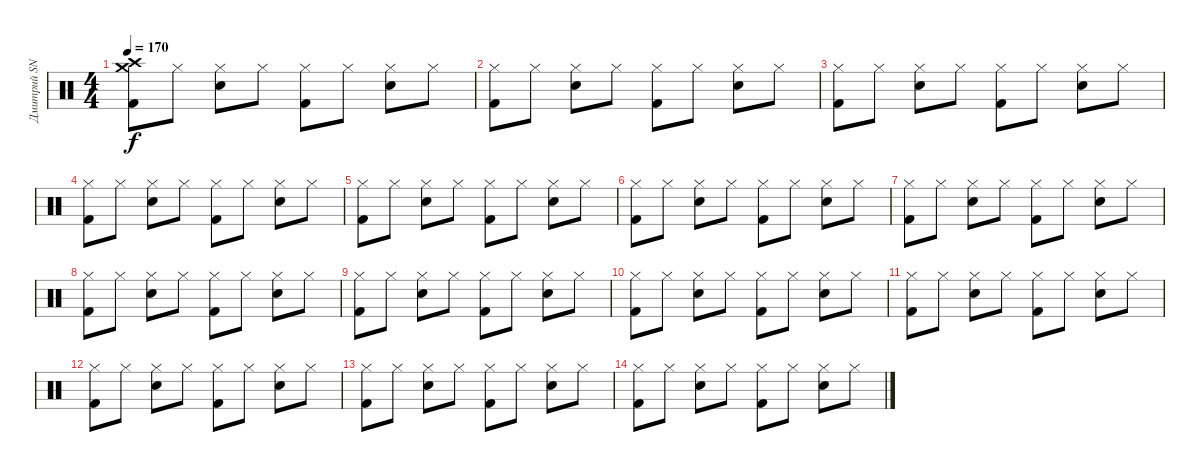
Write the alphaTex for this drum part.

\track ("Дмитрий SNAKE Хакимов" "Дмитрий SN") {instrument percussion}
\staff {score}
\articulation defaults
\ts (4 4)
\tempo 170
\clef neutral
\ks c
("Crash high (hit)" "Crash medium (hit)" "Kick (hit) 2").8{dy f} "Hi-Hat (closed)".8 ("Hi-Hat (closed)" "Snare (hit) 2").8 "Hi-Hat (closed)".8 ("Hi-Hat (closed)" "Kick (hit) 2").8 "Hi-Hat (closed)".8 ("Hi-Hat (closed)" "Snare (hit) 2").8 "Hi-Hat (closed)".8 |
("Hi-Hat (closed)" "Kick (hit) 2").8 "Hi-Hat (closed)".8 ("Hi-Hat (closed)" "Snare (hit) 2").8 "Hi-Hat (closed)".8 ("Hi-Hat (closed)" "Kick (hit) 2").8 "Hi-Hat (closed)".8 ("Hi-Hat (closed)" "Snare (hit) 2").8 "Hi-Hat (closed)".8 |
("Hi-Hat (closed)" "Kick (hit) 2").8 "Hi-Hat (closed)".8 ("Hi-Hat (closed)" "Snare (hit) 2").8 "Hi-Hat (closed)".8 ("Hi-Hat (closed)" "Kick (hit) 2").8 "Hi-Hat (closed)".8 ("Hi-Hat (closed)" "Snare (hit) 2").8 "Hi-Hat (closed)".8 |
("Hi-Hat (closed)" "Kick (hit) 2").8 "Hi-Hat (closed)".8 ("Hi-Hat (closed)" "Snare (hit) 2").8 "Hi-Hat (closed)".8 ("Hi-Hat (closed)" "Kick (hit) 2").8 "Hi-Hat (closed)".8 ("Hi-Hat (closed)" "Snare (hit) 2").8 "Hi-Hat (closed)".8 |
("Hi-Hat (closed)" "Kick (hit) 2").8 "Hi-Hat (closed)".8 ("Hi-Hat (closed)" "Snare (hit) 2").8 "Hi-Hat (closed)".8 ("Hi-Hat (closed)" "Kick (hit) 2").8 "Hi-Hat (closed)".8 ("Hi-Hat (closed)" "Snare (hit) 2").8 "Hi-Hat (closed)".8 |
("Hi-Hat (closed)" "Kick (hit) 2").8 "Hi-Hat (closed)".8 ("Hi-Hat (closed)" "Snare (hit) 2").8 "Hi-Hat (closed)".8 ("Hi-Hat (closed)" "Kick (hit) 2").8 "Hi-Hat (closed)".8 ("Hi-Hat (closed)" "Snare (hit) 2").8 "Hi-Hat (closed)".8 |
("Hi-Hat (closed)" "Kick (hit) 2").8 "Hi-Hat (closed)".8 ("Hi-Hat (closed)" "Snare (hit) 2").8 "Hi-Hat (closed)".8 ("Hi-Hat (closed)" "Kick (hit) 2").8 "Hi-Hat (closed)".8 ("Hi-Hat (closed)" "Snare (hit) 2").8 "Hi-Hat (closed)".8 |
("Hi-Hat (closed)" "Kick (hit) 2").8 "Hi-Hat (closed)".8 ("Hi-Hat (closed)" "Snare (hit) 2").8 "Hi-Hat (closed)".8 ("Hi-Hat (closed)" "Kick (hit) 2").8 "Hi-Hat (closed)".8 ("Hi-Hat (closed)" "Snare (hit) 2").8 "Hi-Hat (closed)".8 |
("Hi-Hat (closed)" "Kick (hit) 2").8 "Hi-Hat (closed)".8 ("Hi-Hat (closed)" "Snare (hit) 2").8 "Hi-Hat (closed)".8 ("Hi-Hat (closed)" "Kick (hit) 2").8 "Hi-Hat (closed)".8 ("Hi-Hat (closed)" "Snare (hit) 2").8 "Hi-Hat (closed)".8 |
("Hi-Hat (closed)" "Kick (hit) 2").8 "Hi-Hat (closed)".8 ("Hi-Hat (closed)" "Snare (hit) 2").8 "Hi-Hat (closed)".8 ("Hi-Hat (closed)" "Kick (hit) 2").8 "Hi-Hat (closed)".8 ("Hi-Hat (closed)" "Snare (hit) 2").8 "Hi-Hat (closed)".8 |
("Hi-Hat (closed)" "Kick (hit) 2").8 "Hi-Hat (closed)".8 ("Hi-Hat (closed)" "Snare (hit) 2").8 "Hi-Hat (closed)".8 ("Hi-Hat (closed)" "Kick (hit) 2").8 "Hi-Hat (closed)".8 ("Hi-Hat (closed)" "Snare (hit) 2").8 "Hi-Hat (closed)".8 |
("Hi-Hat (closed)" "Kick (hit) 2").8 "Hi-Hat (closed)".8 ("Hi-Hat (closed)" "Snare (hit) 2").8 "Hi-Hat (closed)".8 ("Hi-Hat (closed)" "Kick (hit) 2").8 "Hi-Hat (closed)".8 ("Hi-Hat (closed)" "Snare (hit) 2").8 "Hi-Hat (closed)".8 |
("Hi-Hat (closed)" "Kick (hit) 2").8 "Hi-Hat (closed)".8 ("Hi-Hat (closed)" "Snare (hit) 2").8 "Hi-Hat (closed)".8 ("Hi-Hat (closed)" "Kick (hit) 2").8 "Hi-Hat (closed)".8 ("Hi-Hat (closed)" "Snare (hit) 2").8 "Hi-Hat (closed)".8 |
("Hi-Hat (closed)" "Kick (hit) 2").8 "Hi-Hat (closed)".8 ("Hi-Hat (closed)" "Snare (hit) 2").8 "Hi-Hat (closed)".8 ("Hi-Hat (closed)" "Kick (hit) 2").8 "Hi-Hat (closed)".8 ("Hi-Hat (closed)" "Snare (hit) 2").8 "Hi-Hat (closed)".8
